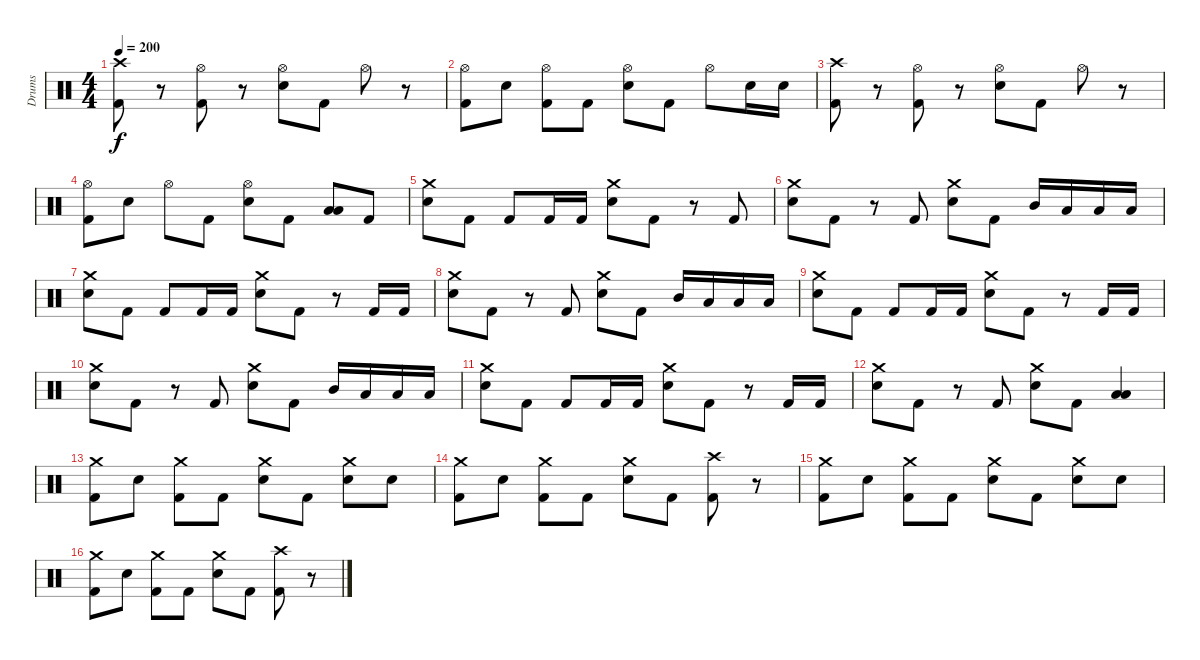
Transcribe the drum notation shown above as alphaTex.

\track ("Drums" "Drums") {instrument percussion}
\staff {score}
\articulation defaults
\ts (4 4)
\tempo 200
\clef neutral
\ks c
("Crash high (hit)" "Kick (hit) 2").8{dy f} r.8 ("Hi-Hat (open)" "Kick (hit) 2").8 r.8 ("Hi-Hat (open)" "Electric Snare (hit)").8 "Kick (hit) 2".8 "Hi-Hat (open)".8 r.8 |
("Hi-Hat (open)" "Kick (hit) 2").8 "Electric Snare (hit)".8 ("Hi-Hat (open)" "Kick (hit) 2").8 "Kick (hit) 2".8 ("Hi-Hat (open)" "Electric Snare (hit)").8 "Kick (hit) 2".8 "Hi-Hat (open)".8 "Electric Snare (hit)".16 "Electric Snare (hit)".16 |
("Crash high (hit)" "Kick (hit) 2").8 r.8 ("Hi-Hat (open)" "Kick (hit) 2").8 r.8 ("Hi-Hat (open)" "Electric Snare (hit)").8 "Kick (hit) 2".8 "Hi-Hat (open)".8 r.8 |
("Hi-Hat (open)" "Kick (hit) 2").8 "Electric Snare (hit)".8 "Hi-Hat (open)".8 "Kick (hit) 2".8 ("Hi-Hat (open)" "Electric Snare (hit)").8 "Kick (hit) 2".8 ("Low Floor Tom (hit)" "Low Tom (hit)").8 "Kick (hit) 2".8 |
("Crash medium (hit)" "Electric Snare (hit)").8 "Kick (hit) 2".8 "Kick (hit) 2".8 "Kick (hit) 2".16 "Kick (hit) 2".16 ("Crash medium (hit)" "Electric Snare (hit)").8 "Kick (hit) 2".8 r.8 "Kick (hit) 2".8 |
("Crash medium (hit)" "Electric Snare (hit)").8 "Kick (hit) 2".8 r.8 "Kick (hit) 2".8 ("Crash medium (hit)" "Electric Snare (hit)").8 "Kick (hit) 2".8 "Mid Tom (hit)".16 "Low Tom (hit)".16 "Low Floor Tom (hit)".16 "Low Floor Tom (hit)".16 |
("Crash medium (hit)" "Electric Snare (hit)").8 "Kick (hit) 2".8 "Kick (hit) 2".8 "Kick (hit) 2".16 "Kick (hit) 2".16 ("Crash medium (hit)" "Electric Snare (hit)").8 "Kick (hit) 2".8 r.8 "Kick (hit) 2".16 "Kick (hit) 2".16 |
("Crash medium (hit)" "Electric Snare (hit)").8 "Kick (hit) 2".8 r.8 "Kick (hit) 2".8 ("Crash medium (hit)" "Electric Snare (hit)").8 "Kick (hit) 2".8 "Mid Tom (hit)".16 "Low Tom (hit)".16 "Low Floor Tom (hit)".16 "Low Floor Tom (hit)".16 |
("Crash medium (hit)" "Electric Snare (hit)").8 "Kick (hit) 2".8 "Kick (hit) 2".8 "Kick (hit) 2".16 "Kick (hit) 2".16 ("Crash medium (hit)" "Electric Snare (hit)").8 "Kick (hit) 2".8 r.8 "Kick (hit) 2".16 "Kick (hit) 2".16 |
("Crash medium (hit)" "Electric Snare (hit)").8 "Kick (hit) 2".8 r.8 "Kick (hit) 2".8 ("Crash medium (hit)" "Electric Snare (hit)").8 "Kick (hit) 2".8 "Mid Tom (hit)".16 "Low Tom (hit)".16 "Low Floor Tom (hit)".16 "Low Floor Tom (hit)".16 |
("Crash medium (hit)" "Electric Snare (hit)").8 "Kick (hit) 2".8 "Kick (hit) 2".8 "Kick (hit) 2".16 "Kick (hit) 2".16 ("Crash medium (hit)" "Electric Snare (hit)").8 "Kick (hit) 2".8 r.8 "Kick (hit) 2".16 "Kick (hit) 2".16 |
("Crash medium (hit)" "Electric Snare (hit)").8 "Kick (hit) 2".8 r.8 "Kick (hit) 2".8 ("Crash medium (hit)" "Electric Snare (hit)").8 "Kick (hit) 2".8 ("Low Floor Tom (hit)" "Low Tom (hit)").4 |
("Crash medium (hit)" "Kick (hit) 2").8 "Electric Snare (hit)".8 ("Crash medium (hit)" "Kick (hit) 2").8 "Kick (hit) 2".8 ("Crash medium (hit)" "Electric Snare (hit)").8 "Kick (hit) 2".8 ("Crash medium (hit)" "Electric Snare (hit)").8 "Electric Snare (hit)".8 |
("Crash medium (hit)" "Kick (hit) 2").8 "Electric Snare (hit)".8 ("Crash medium (hit)" "Kick (hit) 2").8 "Kick (hit) 2".8 ("Crash medium (hit)" "Electric Snare (hit)").8 "Kick (hit) 2".8 ("Crash high (hit)" "Kick (hit) 2").8 r.8 |
("Crash medium (hit)" "Kick (hit) 2").8 "Electric Snare (hit)".8 ("Crash medium (hit)" "Kick (hit) 2").8 "Kick (hit) 2".8 ("Crash medium (hit)" "Electric Snare (hit)").8 "Kick (hit) 2".8 ("Crash medium (hit)" "Electric Snare (hit)").8 "Electric Snare (hit)".8 |
("Crash medium (hit)" "Kick (hit) 2").8 "Electric Snare (hit)".8 ("Crash medium (hit)" "Kick (hit) 2").8 "Kick (hit) 2".8 ("Crash medium (hit)" "Electric Snare (hit)").8 "Kick (hit) 2".8 ("Crash high (hit)" "Kick (hit) 2").8 r.8
